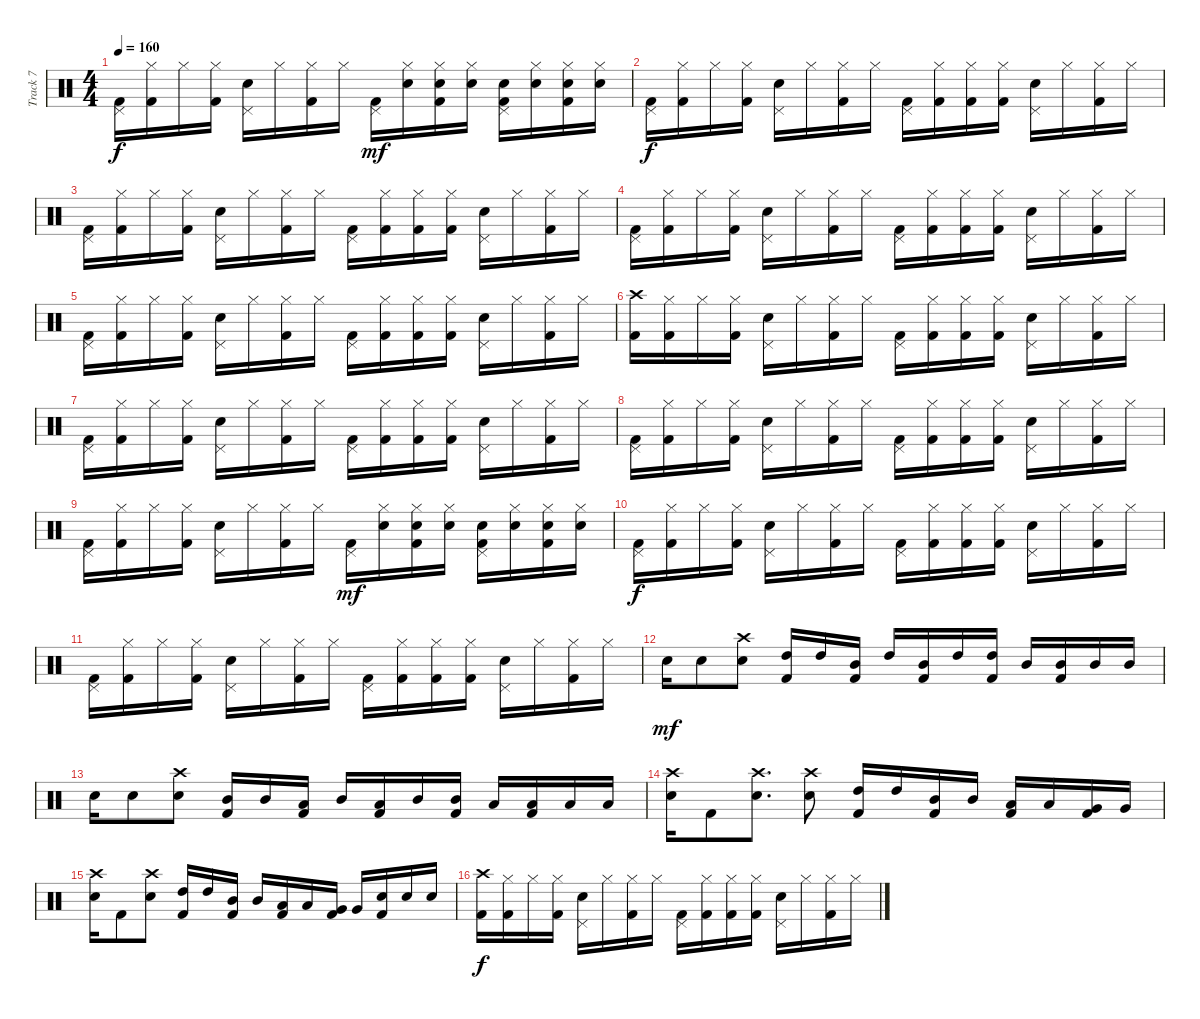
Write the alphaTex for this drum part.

\track ("Track 7" "Track 7") {instrument percussion}
\staff {score}
\articulation defaults
\ts (4 4)
\tempo 160
\clef neutral
\ks c
("Pedal Hi-Hat (hit)" "Kick (hit) 2").16{dy f} ("Hi-Hat (closed)" "Kick (hit) 2").16 "Hi-Hat (closed)".16 ("Hi-Hat (closed)" "Kick (hit) 2").16 ("Pedal Hi-Hat (hit)" "Snare (hit) 2").16 "Hi-Hat (closed)".16 ("Hi-Hat (closed)" "Kick (hit) 2").16 "Hi-Hat (closed)".16 ("Pedal Hi-Hat (hit)" "Kick (hit) 2").16{dy mf} ("Hi-Hat (closed)" "Snare (hit) 2").16 ("Hi-Hat (closed)" "Snare (hit) 2" "Kick (hit) 2").16 ("Hi-Hat (closed)" "Snare (hit) 2").16 ("Pedal Hi-Hat (hit)" "Snare (hit) 2" "Kick (hit) 2").16 ("Hi-Hat (closed)" "Snare (hit) 2").16 ("Hi-Hat (closed)" "Snare (hit) 2" "Kick (hit) 2").16 ("Hi-Hat (closed)" "Snare (hit) 2").16 |
("Pedal Hi-Hat (hit)" "Kick (hit) 2").16{dy f} ("Hi-Hat (closed)" "Kick (hit) 2").16 "Hi-Hat (closed)".16 ("Hi-Hat (closed)" "Kick (hit) 2").16 ("Pedal Hi-Hat (hit)" "Snare (hit) 2").16 "Hi-Hat (closed)".16 ("Hi-Hat (closed)" "Kick (hit) 2").16 "Hi-Hat (closed)".16 ("Pedal Hi-Hat (hit)" "Kick (hit) 2").16 ("Hi-Hat (closed)" "Kick (hit) 2").16 ("Hi-Hat (closed)" "Kick (hit) 2").16 ("Hi-Hat (closed)" "Kick (hit) 2").16 ("Pedal Hi-Hat (hit)" "Snare (hit) 2").16 "Hi-Hat (closed)".16 ("Hi-Hat (closed)" "Kick (hit) 2").16 "Hi-Hat (closed)".16 |
("Pedal Hi-Hat (hit)" "Kick (hit) 2").16 ("Hi-Hat (closed)" "Kick (hit) 2").16 "Hi-Hat (closed)".16 ("Hi-Hat (closed)" "Kick (hit) 2").16 ("Pedal Hi-Hat (hit)" "Snare (hit) 2").16 "Hi-Hat (closed)".16 ("Hi-Hat (closed)" "Kick (hit) 2").16 "Hi-Hat (closed)".16 ("Pedal Hi-Hat (hit)" "Kick (hit) 2").16 ("Hi-Hat (closed)" "Kick (hit) 2").16 ("Hi-Hat (closed)" "Kick (hit) 2").16 ("Hi-Hat (closed)" "Kick (hit) 2").16 ("Pedal Hi-Hat (hit)" "Snare (hit) 2").16 "Hi-Hat (closed)".16 ("Hi-Hat (closed)" "Kick (hit) 2").16 "Hi-Hat (closed)".16 |
("Pedal Hi-Hat (hit)" "Kick (hit) 2").16 ("Hi-Hat (closed)" "Kick (hit) 2").16 "Hi-Hat (closed)".16 ("Hi-Hat (closed)" "Kick (hit) 2").16 ("Pedal Hi-Hat (hit)" "Snare (hit) 2").16 "Hi-Hat (closed)".16 ("Hi-Hat (closed)" "Kick (hit) 2").16 "Hi-Hat (closed)".16 ("Pedal Hi-Hat (hit)" "Kick (hit) 2").16 ("Hi-Hat (closed)" "Kick (hit) 2").16 ("Hi-Hat (closed)" "Kick (hit) 2").16 ("Hi-Hat (closed)" "Kick (hit) 2").16 ("Pedal Hi-Hat (hit)" "Snare (hit) 2").16 "Hi-Hat (closed)".16 ("Hi-Hat (closed)" "Kick (hit) 2").16 "Hi-Hat (closed)".16 |
("Pedal Hi-Hat (hit)" "Kick (hit) 2").16 ("Hi-Hat (closed)" "Kick (hit) 2").16 "Hi-Hat (closed)".16 ("Hi-Hat (closed)" "Kick (hit) 2").16 ("Pedal Hi-Hat (hit)" "Snare (hit) 2").16 "Hi-Hat (closed)".16 ("Hi-Hat (closed)" "Kick (hit) 2").16 "Hi-Hat (closed)".16 ("Pedal Hi-Hat (hit)" "Kick (hit) 2").16 ("Hi-Hat (closed)" "Kick (hit) 2").16 ("Hi-Hat (closed)" "Kick (hit) 2").16 ("Hi-Hat (closed)" "Kick (hit) 2").16 ("Pedal Hi-Hat (hit)" "Snare (hit) 2").16 "Hi-Hat (closed)".16 ("Hi-Hat (closed)" "Kick (hit) 2").16 "Hi-Hat (closed)".16 |
("Crash high (hit)" "Kick (hit) 2").16 ("Hi-Hat (closed)" "Kick (hit) 2").16 "Hi-Hat (closed)".16 ("Hi-Hat (closed)" "Kick (hit) 2").16 ("Pedal Hi-Hat (hit)" "Snare (hit) 2").16 "Hi-Hat (closed)".16 ("Hi-Hat (closed)" "Kick (hit) 2").16 "Hi-Hat (closed)".16 ("Pedal Hi-Hat (hit)" "Kick (hit) 2").16 ("Hi-Hat (closed)" "Kick (hit) 2").16 ("Hi-Hat (closed)" "Kick (hit) 2").16 ("Hi-Hat (closed)" "Kick (hit) 2").16 ("Pedal Hi-Hat (hit)" "Snare (hit) 2").16 "Hi-Hat (closed)".16 ("Hi-Hat (closed)" "Kick (hit) 2").16 "Hi-Hat (closed)".16 |
("Pedal Hi-Hat (hit)" "Kick (hit) 2").16 ("Hi-Hat (closed)" "Kick (hit) 2").16 "Hi-Hat (closed)".16 ("Hi-Hat (closed)" "Kick (hit) 2").16 ("Pedal Hi-Hat (hit)" "Snare (hit) 2").16 "Hi-Hat (closed)".16 ("Hi-Hat (closed)" "Kick (hit) 2").16 "Hi-Hat (closed)".16 ("Pedal Hi-Hat (hit)" "Kick (hit) 2").16 ("Hi-Hat (closed)" "Kick (hit) 2").16 ("Hi-Hat (closed)" "Kick (hit) 2").16 ("Hi-Hat (closed)" "Kick (hit) 2").16 ("Pedal Hi-Hat (hit)" "Snare (hit) 2").16 "Hi-Hat (closed)".16 ("Hi-Hat (closed)" "Kick (hit) 2").16 "Hi-Hat (closed)".16 |
("Pedal Hi-Hat (hit)" "Kick (hit) 2").16 ("Hi-Hat (closed)" "Kick (hit) 2").16 "Hi-Hat (closed)".16 ("Hi-Hat (closed)" "Kick (hit) 2").16 ("Pedal Hi-Hat (hit)" "Snare (hit) 2").16 "Hi-Hat (closed)".16 ("Hi-Hat (closed)" "Kick (hit) 2").16 "Hi-Hat (closed)".16 ("Pedal Hi-Hat (hit)" "Kick (hit) 2").16 ("Hi-Hat (closed)" "Kick (hit) 2").16 ("Hi-Hat (closed)" "Kick (hit) 2").16 ("Hi-Hat (closed)" "Kick (hit) 2").16 ("Pedal Hi-Hat (hit)" "Snare (hit) 2").16 "Hi-Hat (closed)".16 ("Hi-Hat (closed)" "Kick (hit) 2").16 "Hi-Hat (closed)".16 |
("Pedal Hi-Hat (hit)" "Kick (hit) 2").16 ("Hi-Hat (closed)" "Kick (hit) 2").16 "Hi-Hat (closed)".16 ("Hi-Hat (closed)" "Kick (hit) 2").16 ("Pedal Hi-Hat (hit)" "Snare (hit) 2").16 "Hi-Hat (closed)".16 ("Hi-Hat (closed)" "Kick (hit) 2").16 "Hi-Hat (closed)".16 ("Pedal Hi-Hat (hit)" "Kick (hit) 2").16{dy mf} ("Hi-Hat (closed)" "Snare (hit) 2").16 ("Hi-Hat (closed)" "Snare (hit) 2" "Kick (hit) 2").16 ("Hi-Hat (closed)" "Snare (hit) 2").16 ("Pedal Hi-Hat (hit)" "Snare (hit) 2" "Kick (hit) 2").16 ("Hi-Hat (closed)" "Snare (hit) 2").16 ("Hi-Hat (closed)" "Snare (hit) 2" "Kick (hit) 2").16 ("Hi-Hat (closed)" "Snare (hit) 2").16 |
("Pedal Hi-Hat (hit)" "Kick (hit) 2").16{dy f} ("Hi-Hat (closed)" "Kick (hit) 2").16 "Hi-Hat (closed)".16 ("Hi-Hat (closed)" "Kick (hit) 2").16 ("Pedal Hi-Hat (hit)" "Snare (hit) 2").16 "Hi-Hat (closed)".16 ("Hi-Hat (closed)" "Kick (hit) 2").16 "Hi-Hat (closed)".16 ("Pedal Hi-Hat (hit)" "Kick (hit) 2").16 ("Hi-Hat (closed)" "Kick (hit) 2").16 ("Hi-Hat (closed)" "Kick (hit) 2").16 ("Hi-Hat (closed)" "Kick (hit) 2").16 ("Pedal Hi-Hat (hit)" "Snare (hit) 2").16 "Hi-Hat (closed)".16 ("Hi-Hat (closed)" "Kick (hit) 2").16 "Hi-Hat (closed)".16 |
("Pedal Hi-Hat (hit)" "Kick (hit) 2").16 ("Hi-Hat (closed)" "Kick (hit) 2").16 "Hi-Hat (closed)".16 ("Hi-Hat (closed)" "Kick (hit) 2").16 ("Pedal Hi-Hat (hit)" "Snare (hit) 2").16 "Hi-Hat (closed)".16 ("Hi-Hat (closed)" "Kick (hit) 2").16 "Hi-Hat (closed)".16 ("Pedal Hi-Hat (hit)" "Kick (hit) 2").16 ("Hi-Hat (closed)" "Kick (hit) 2").16 ("Hi-Hat (closed)" "Kick (hit) 2").16 ("Hi-Hat (closed)" "Kick (hit) 2").16 ("Pedal Hi-Hat (hit)" "Snare (hit) 2").16 "Hi-Hat (closed)".16 ("Hi-Hat (closed)" "Kick (hit) 2").16 "Hi-Hat (closed)".16 |
"Snare (hit) 2".16{dy mf} "Snare (hit) 2".8 ("Crash high (hit)" "Snare (hit) 2").8 ("High Tom (hit)" "Kick (hit) 2").16 "High Tom (hit)".16 ("Mid Tom (hit)" "Kick (hit) 2").16 "High Tom (hit)".16 ("Mid Tom (hit)" "Kick (hit) 2").16 "High Tom (hit)".16 ("High Tom (hit)" "Kick (hit) 2").16 "Mid Tom (hit)".16 ("Mid Tom (hit)" "Kick (hit) 2").16 "Mid Tom (hit)".16 "Mid Tom (hit)".16 |
"Snare (hit) 2".16 "Snare (hit) 2".8 ("Crash high (hit)" "Snare (hit) 2").8 ("Mid Tom (hit)" "Kick (hit) 2").16 "Mid Tom (hit)".16 ("Low Tom (hit)" "Kick (hit) 2").16 "Mid Tom (hit)".16 ("Low Tom (hit)" "Kick (hit) 2").16 "Mid Tom (hit)".16 ("Mid Tom (hit)" "Kick (hit) 2").16 "Low Tom (hit)".16 ("Low Tom (hit)" "Kick (hit) 2").16 "Low Tom (hit)".16 "Low Tom (hit)".16 |
("Crash high (hit)" "Snare (hit) 2").16 "Kick (hit) 2".8 ("Crash high (hit)" "Snare (hit) 2").8{d} ("Crash high (hit)" "Snare (hit) 2").8 ("High Tom (hit)" "Kick (hit) 2").16 "High Tom (hit)".16 ("Mid Tom (hit)" "Kick (hit) 2").16 "Mid Tom (hit)".16 ("Low Tom (hit)" "Kick (hit) 2").16 "Low Tom (hit)".16 ("Very Low Tom (hit)" "Kick (hit) 2").16 "Very Low Tom (hit)".16 |
("Crash high (hit)" "Snare (hit) 2").16 "Kick (hit) 2".8 ("Crash high (hit)" "Snare (hit) 2").8 ("High Tom (hit)" "Kick (hit) 2").16 "High Tom (hit)".16 ("Mid Tom (hit)" "Kick (hit) 2").16 "Mid Tom (hit)".16 ("Low Tom (hit)" "Kick (hit) 2").16 "Low Tom (hit)".16 ("Very Low Tom (hit)" "Kick (hit) 2").16 "Very Low Tom (hit)".16 ("Snare (hit) 2" "Kick (hit) 2").16 "Snare (hit) 2".16 "Snare (hit) 2".16 |
("Crash high (hit)" "Kick (hit) 2").16{dy f} ("Hi-Hat (closed)" "Kick (hit) 2").16 "Hi-Hat (closed)".16 ("Hi-Hat (closed)" "Kick (hit) 2").16 ("Pedal Hi-Hat (hit)" "Snare (hit) 2").16 "Hi-Hat (closed)".16 ("Hi-Hat (closed)" "Kick (hit) 2").16 "Hi-Hat (closed)".16 ("Pedal Hi-Hat (hit)" "Kick (hit) 2").16 ("Hi-Hat (closed)" "Kick (hit) 2").16 ("Hi-Hat (closed)" "Kick (hit) 2").16 ("Hi-Hat (closed)" "Kick (hit) 2").16 ("Pedal Hi-Hat (hit)" "Snare (hit) 2").16 "Hi-Hat (closed)".16 ("Hi-Hat (closed)" "Kick (hit) 2").16 "Hi-Hat (closed)".16
